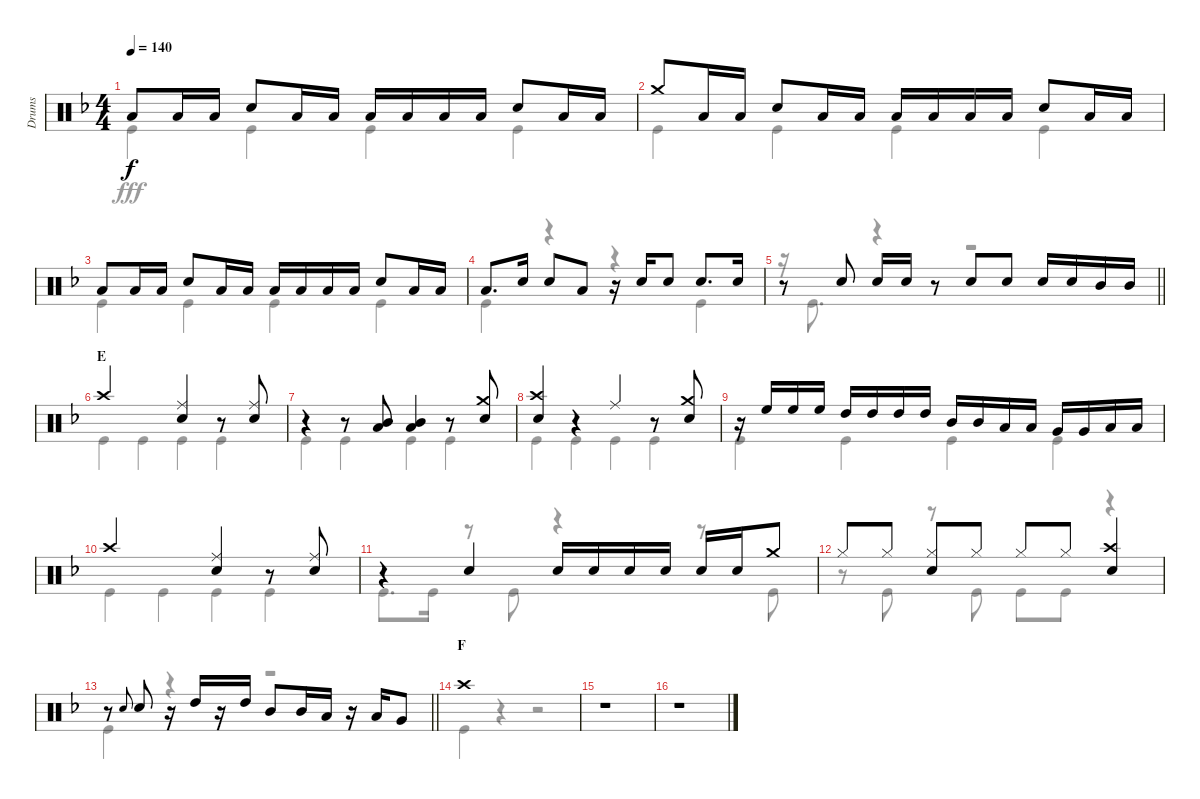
\track ("Drums" "Drums") {instrument percussion}
\staff {score}
\articulation defaults
\voice
\ts (4 4)
\tempo 140
\clef neutral
\ks f "Low Tom (hit)".8{dy f} "Low Tom (hit)".16 "Low Tom (hit)".16 "Snare (hit) 2".8 "Low Tom (hit)".16 "Low Tom (hit)".16 "Low Tom (hit)".16 "Low Tom (hit)".16 "Low Tom (hit)".16 "Low Tom (hit)".16 "Snare (hit) 2".8 "Low Tom (hit)".16 "Low Tom (hit)".16
|
"Crash medium (hit)".8 "Low Tom (hit)".16 "Low Tom (hit)".16 "Snare (hit) 2".8 "Low Tom (hit)".16 "Low Tom (hit)".16 "Low Tom (hit)".16 "Low Tom (hit)".16 "Low Tom (hit)".16 "Low Tom (hit)".16 "Snare (hit) 2".8 "Low Tom (hit)".16 "Low Tom (hit)".16 |
"Low Tom (hit)".8 "Low Tom (hit)".16 "Low Tom (hit)".16 "Snare (hit) 2".8 "Low Tom (hit)".16 "Low Tom (hit)".16 "Low Tom (hit)".16 "Low Tom (hit)".16 "Low Tom (hit)".16 "Low Tom (hit)".16 "Snare (hit) 2".8 "Low Tom (hit)".16 "Low Tom (hit)".16 |
"Low Tom (hit)".8{d} "Snare (hit) 2".16 "Snare (hit) 2".8 "Low Tom (hit)".8 r.16 "Snare (hit) 2".16 "Snare (hit) 2".8 "Snare (hit) 2".8{d} "Snare (hit) 2".16 |
\barLineRight lightlight
r.8 "Snare (hit) 2".8 "Snare (hit) 2".16 "Snare (hit) 2".16 r.8 "Snare (hit) 2".8 "Snare (hit) 2".8 "Snare (hit) 2".16 "Snare (hit) 2".16 "Mid Tom (hit)".16 "Mid Tom (hit)".16 |
\section ("" "E")
"Crash high (hit)".2 ("Ride (middle)" "Snare (hit) 2").4 r.8 ("Ride (middle)" "Snare (hit) 2").8 |
r.4 r.8 ("Mid Tom (hit)" "Low Tom (hit)").8 ("Mid Tom (hit)" "Low Tom (hit)").4 r.8 ("Crash medium (hit)" "Snare (hit) 2").8 |
("Crash high (hit)" "Snare (hit) 2").4 r.4 "Ride (middle)".4 r.8 ("Crash medium (hit)" "Snare (hit) 2").8 |
r.16 "High Floor Tom (hit)".16 "High Floor Tom (hit)".16 "High Floor Tom (hit)".16 "High Tom (hit)".16 "High Tom (hit)".16 "High Tom (hit)".16 "High Tom (hit)".16 "Mid Tom (hit)".16 "Mid Tom (hit)".16 "Low Tom (hit)".16 "Low Tom (hit)".16 "Very Low Tom (hit)".16 "Very Low Tom (hit)".16 "Low Floor Tom (hit)".16 "Low Floor Tom (hit)".16 |
"Crash high (hit)".2 ("Ride (middle)" "Snare (hit) 2").4 r.8 ("Ride (middle)" "Snare (hit) 2").8 |
r.4 "Snare (hit) 2".4 "Snare (hit) 2".16 "Snare (hit) 2".16 "Snare (hit) 2".16 "Snare (hit) 2".16 "Snare (hit) 2".16 "Snare (hit) 2".16 "Crash medium (hit)".8 |
"Hi-Hat (closed)".8 "Hi-Hat (closed)".8 ("Hi-Hat (closed)" "Snare (hit) 2").8 "Hi-Hat (closed)".8 "Hi-Hat (closed)".8 "Hi-Hat (closed)".8 ("Crash high (hit)" "Snare (hit) 2").4 |
\barLineRight lightlight
r.8 "Snare (hit) 2".8{gr onbeat} "Snare (hit) 2".8 r.16 "High Tom (hit)".16 r.16 "High Tom (hit)".16 "Mid Tom (hit)".8 "Mid Tom (hit)".16 "Low Tom (hit)".16 r.16 "Low Tom (hit)".16 "Very Low Tom (hit)".8 |
\section ("" "F")
"Crash high (hit)".1 |
r.1 |
r.1
\voice
\clef neutral
\ottava regular
\simile none
\ks f "Kick (hit)".4{dy fff} "Kick (hit)".4 "Kick (hit)".4 "Kick (hit)".4
|
"Kick (hit)".4 "Kick (hit)".4 "Kick (hit)".4 "Kick (hit)".4 |
"Kick (hit)".4 "Kick (hit)".4 "Kick (hit)".4 "Kick (hit)".4 |
"Kick (hit)".4 r.4 r.4 "Kick (hit)".4 |
\barLineRight lightlight
r.16 "Kick (hit)".8{d} r.4 r.2 |
"Kick (hit)".4 "Kick (hit)".4 "Kick (hit)".4 "Kick (hit)".4 |
"Kick (hit)".4 "Kick (hit)".4 "Kick (hit)".4 "Kick (hit)".4 |
"Kick (hit)".4 "Kick (hit)".4 "Kick (hit)".4 "Kick (hit)".4 |
"Kick (hit)".4 "Kick (hit)".4 "Kick (hit)".4 "Kick (hit)".4 |
"Kick (hit)".4 "Kick (hit)".4 "Kick (hit)".4 "Kick (hit)".4 |
"Kick (hit)".8{d} "Kick (hit)".16 r.8 "Kick (hit)".8 r.4 r.8 "Kick (hit)".8 |
r.8 "Kick (hit)".8 r.8 "Kick (hit)".8 "Kick (hit)".8 "Kick (hit)".8 r.4 |
\barLineRight lightlight "Kick (hit)".4
r.4 r.2 |
"Kick (hit)".4 r.4 r.2 |
r.1 |
r.1
